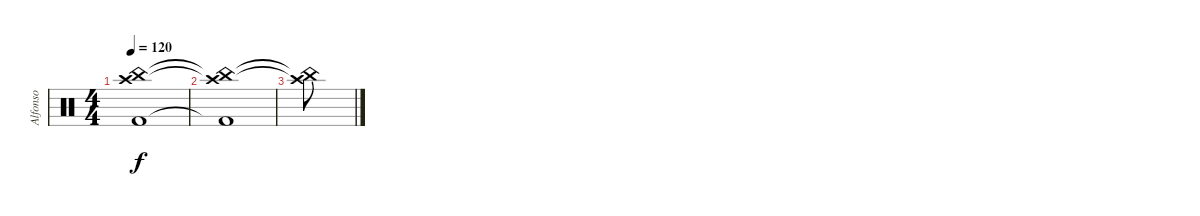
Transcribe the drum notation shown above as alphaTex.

\track ("Alfonso" "Alfonso") {instrument percussion}
\staff {score}
\articulation defaults
\ts (4 4)
\tempo 120
\clef neutral
\ks c
("Crash high (hit)" "China (hit)" "Kick (hit) 2").1{dy f} |
("Crash high (hit)"{t} "China (hit)"{t} "Kick (hit) 2"{t}).1 |
("Crash high (hit)"{t} "China (hit)"{t}).8
